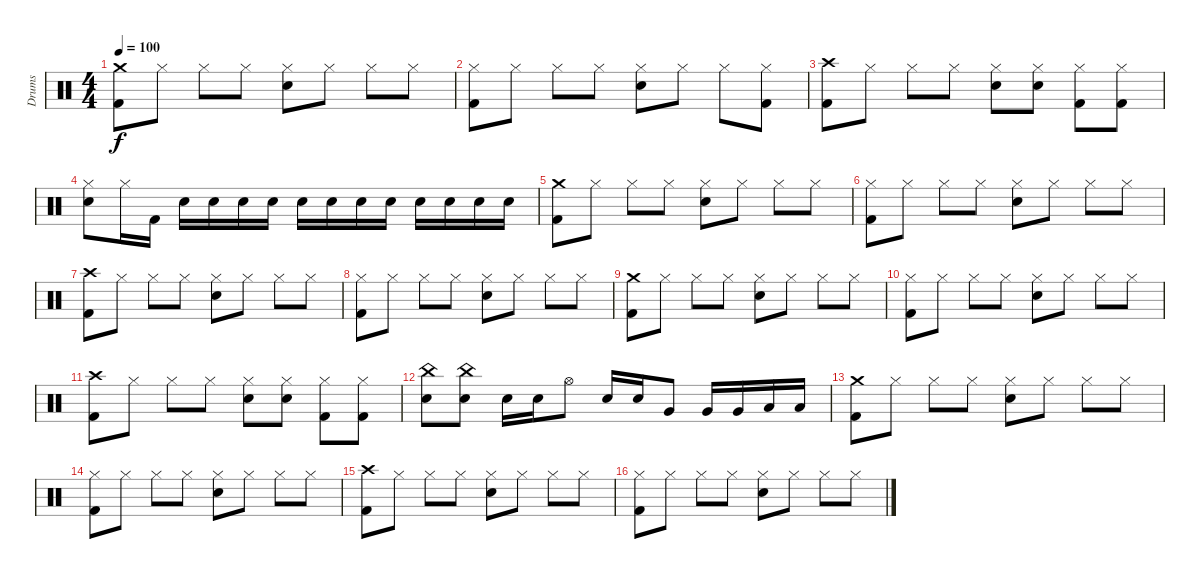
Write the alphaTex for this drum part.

\track ("Drums" "Drums") {instrument percussion}
\staff {score}
\articulation defaults
\ts (4 4)
\tempo 100
\clef neutral
\ks c
("Crash medium (hit)" "Kick (hit) 2").8{dy f} "Hi-Hat (closed)".8 "Hi-Hat (closed)".8 "Hi-Hat (closed)".8 ("Hi-Hat (closed)" "Electric Snare (hit)").8 "Hi-Hat (closed)".8 "Hi-Hat (closed)".8 "Hi-Hat (closed)".8 |
("Hi-Hat (closed)" "Kick (hit) 2").8 "Hi-Hat (closed)".8 "Hi-Hat (closed)".8 "Hi-Hat (closed)".8 ("Hi-Hat (closed)" "Electric Snare (hit)").8 "Hi-Hat (closed)".8 "Hi-Hat (closed)".8 ("Hi-Hat (closed)" "Kick (hit) 2").8 |
("Crash high (hit)" "Kick (hit) 2").8 "Hi-Hat (closed)".8 "Hi-Hat (closed)".8 "Hi-Hat (closed)".8 ("Hi-Hat (closed)" "Electric Snare (hit)").8 ("Hi-Hat (closed)" "Electric Snare (hit)").8 ("Hi-Hat (closed)" "Kick (hit) 2").8 ("Hi-Hat (closed)" "Kick (hit) 2").8 |
("Hi-Hat (closed)" "Electric Snare (hit)").8 "Hi-Hat (closed)".16 "Kick (hit) 2".16 "Electric Snare (hit)".16 "Electric Snare (hit)".16 "Electric Snare (hit)".16 "Electric Snare (hit)".16 "Electric Snare (hit)".16 "Electric Snare (hit)".16 "Electric Snare (hit)".16 "Electric Snare (hit)".16 "Electric Snare (hit)".16 "Electric Snare (hit)".16 "Electric Snare (hit)".16 "Electric Snare (hit)".16 |
("Crash medium (hit)" "Kick (hit) 2").8 "Hi-Hat (closed)".8 "Hi-Hat (closed)".8 "Hi-Hat (closed)".8 ("Hi-Hat (closed)" "Electric Snare (hit)").8 "Hi-Hat (closed)".8 "Hi-Hat (closed)".8 "Hi-Hat (closed)".8 |
("Hi-Hat (closed)" "Kick (hit) 2").8 "Hi-Hat (closed)".8 "Hi-Hat (closed)".8 "Hi-Hat (closed)".8 ("Hi-Hat (closed)" "Electric Snare (hit)").8 "Hi-Hat (closed)".8 "Hi-Hat (closed)".8 "Hi-Hat (closed)".8 |
("Crash high (hit)" "Kick (hit) 2").8 "Hi-Hat (closed)".8 "Hi-Hat (closed)".8 "Hi-Hat (closed)".8 ("Hi-Hat (closed)" "Electric Snare (hit)").8 "Hi-Hat (closed)".8 "Hi-Hat (closed)".8 "Hi-Hat (closed)".8 |
("Hi-Hat (closed)" "Kick (hit) 2").8 "Hi-Hat (closed)".8 "Hi-Hat (closed)".8 "Hi-Hat (closed)".8 ("Hi-Hat (closed)" "Electric Snare (hit)").8 "Hi-Hat (closed)".8 "Hi-Hat (closed)".8 "Hi-Hat (closed)".8 |
("Crash medium (hit)" "Kick (hit) 2").8 "Hi-Hat (closed)".8 "Hi-Hat (closed)".8 "Hi-Hat (closed)".8 ("Hi-Hat (closed)" "Electric Snare (hit)").8 "Hi-Hat (closed)".8 "Hi-Hat (closed)".8 "Hi-Hat (closed)".8 |
("Hi-Hat (closed)" "Kick (hit) 2").8 "Hi-Hat (closed)".8 "Hi-Hat (closed)".8 "Hi-Hat (closed)".8 ("Hi-Hat (closed)" "Electric Snare (hit)").8 "Hi-Hat (closed)".8 "Hi-Hat (closed)".8 "Hi-Hat (closed)".8 |
("Crash high (hit)" "Kick (hit) 2").8 "Hi-Hat (closed)".8 "Hi-Hat (closed)".8 "Hi-Hat (closed)".8 ("Hi-Hat (closed)" "Electric Snare (hit)").8 ("Hi-Hat (closed)" "Electric Snare (hit)").8 ("Hi-Hat (closed)" "Kick (hit) 2").8 ("Hi-Hat (closed)" "Kick (hit) 2").8 |
("China (hit)" "Electric Snare (hit)").8 ("China (hit)" "Electric Snare (hit)").8 "Electric Snare (hit)".16 "Electric Snare (hit)".16 "Hi-Hat (open)".8 "Electric Snare (hit)".16 "Electric Snare (hit)".16 "Very Low Tom (hit)".8 "Very Low Tom (hit)".16 "Very Low Tom (hit)".16 "Low Floor Tom (hit)".16 "Low Floor Tom (hit)".16 |
("Crash medium (hit)" "Kick (hit) 2").8 "Hi-Hat (closed)".8 "Hi-Hat (closed)".8 "Hi-Hat (closed)".8 ("Hi-Hat (closed)" "Electric Snare (hit)").8 "Hi-Hat (closed)".8 "Hi-Hat (closed)".8 "Hi-Hat (closed)".8 |
("Hi-Hat (closed)" "Kick (hit) 2").8 "Hi-Hat (closed)".8 "Hi-Hat (closed)".8 "Hi-Hat (closed)".8 ("Hi-Hat (closed)" "Electric Snare (hit)").8 "Hi-Hat (closed)".8 "Hi-Hat (closed)".8 "Hi-Hat (closed)".8 |
("Crash high (hit)" "Kick (hit) 2").8 "Hi-Hat (closed)".8 "Hi-Hat (closed)".8 "Hi-Hat (closed)".8 ("Hi-Hat (closed)" "Electric Snare (hit)").8 "Hi-Hat (closed)".8 "Hi-Hat (closed)".8 "Hi-Hat (closed)".8 |
("Hi-Hat (closed)" "Kick (hit) 2").8 "Hi-Hat (closed)".8 "Hi-Hat (closed)".8 "Hi-Hat (closed)".8 ("Hi-Hat (closed)" "Electric Snare (hit)").8 "Hi-Hat (closed)".8 "Hi-Hat (closed)".8 "Hi-Hat (closed)".8
